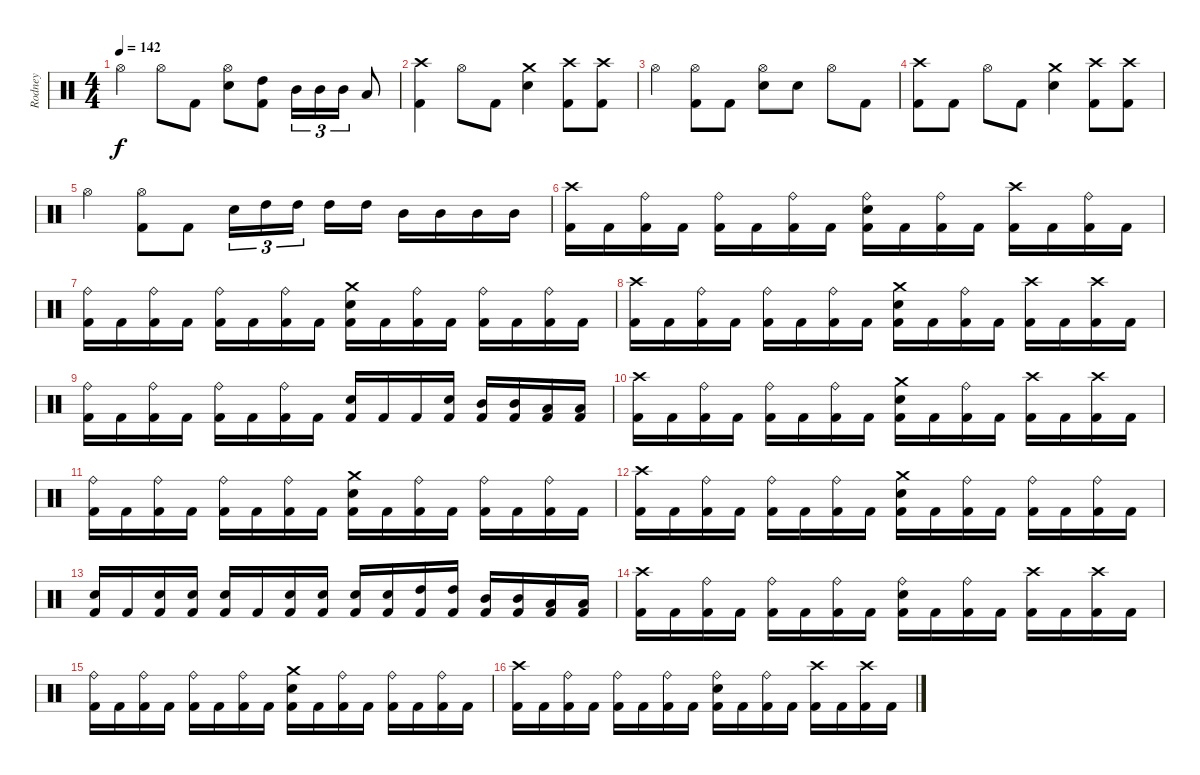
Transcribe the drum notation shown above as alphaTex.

\track ("Rodney" "Rodney") {instrument percussion}
\staff {score}
\articulation defaults
\ts (4 4)
\tempo 142
\clef neutral
\ks c "Hi-Hat (open)".4{dy f} "Hi-Hat (open)".8 "Kick (hit) 2".8
("Hi-Hat (open)" "Snare (hit) 2").8 ("High Tom (hit)" "Kick (hit) 2").8 "Mid Tom (hit)".16{tu (3 2)} "Mid Tom (hit)".16{tu (3 2)} "Mid Tom (hit)".16{tu (3 2)} "Low Tom (hit)".8 |
("Crash high (hit)" "Kick (hit) 2").4 "Hi-Hat (open)".8 "Kick (hit) 2".8 ("Crash medium (hit)" "Snare (hit) 2").4 ("Crash high (hit)" "Kick (hit) 2").8 ("Crash high (hit)" "Kick (hit) 2").8 |
"Hi-Hat (open)".4 ("Hi-Hat (open)" "Kick (hit) 2").8 "Kick (hit) 2".8 ("Hi-Hat (open)" "Snare (hit) 2").8 "Snare (hit) 2".8 "Hi-Hat (open)".8 "Kick (hit) 2".8 |
("Crash high (hit)" "Kick (hit) 2").8 "Kick (hit) 2".8 "Hi-Hat (open)".8 "Kick (hit) 2".8 ("Crash medium (hit)" "Snare (hit) 2").4 ("Crash high (hit)" "Kick (hit) 2").8 ("Crash high (hit)" "Kick (hit) 2").8 |
"Hi-Hat (open)".4 ("Hi-Hat (open)" "Kick (hit) 2").8 "Kick (hit) 2".8 "Snare (hit) 2".16{tu (3 2)} "High Tom (hit)".16{tu (3 2)} "High Tom (hit)".16{tu (3 2)} "High Tom (hit)".16 "High Tom (hit)".16 "Mid Tom (hit)".16 "Mid Tom (hit)".16 "Mid Tom (hit)".16 "Mid Tom (hit)".16 |
("Crash high (hit)" "Kick (hit) 2").16 "Kick (hit) 2".16 ("Ride (bell)" "Kick (hit) 2").16 "Kick (hit) 2".16 ("Ride (bell)" "Kick (hit) 2").16 "Kick (hit) 2".16 ("Ride (bell)" "Kick (hit) 2").16 "Kick (hit) 2".16 ("Ride (bell)" "Snare (hit) 2" "Kick (hit) 2").16 "Kick (hit) 2".16 ("Ride (bell)" "Kick (hit) 2").16 "Kick (hit) 2".16 ("Crash high (hit)" "Kick (hit) 2").16 "Kick (hit) 2".16 ("Ride (bell)" "Kick (hit) 2").16 "Kick (hit) 2".16 |
("Ride (bell)" "Kick (hit) 2").16 "Kick (hit) 2".16 ("Ride (bell)" "Kick (hit) 2").16 "Kick (hit) 2".16 ("Ride (bell)" "Kick (hit) 2").16 "Kick (hit) 2".16 ("Ride (bell)" "Kick (hit) 2").16 "Kick (hit) 2".16 ("Crash medium (hit)" "Snare (hit) 2" "Kick (hit) 2").16 "Kick (hit) 2".16 ("Ride (bell)" "Kick (hit) 2").16 "Kick (hit) 2".16 ("Ride (bell)" "Kick (hit) 2").16 "Kick (hit) 2".16 ("Ride (bell)" "Kick (hit) 2").16 "Kick (hit) 2".16 |
("Crash high (hit)" "Kick (hit) 2").16 "Kick (hit) 2".16 ("Ride (bell)" "Kick (hit) 2").16 "Kick (hit) 2".16 ("Ride (bell)" "Kick (hit) 2").16 "Kick (hit) 2".16 ("Ride (bell)" "Kick (hit) 2").16 "Kick (hit) 2".16 ("Crash medium (hit)" "Snare (hit) 2" "Kick (hit) 2").16 "Kick (hit) 2".16 ("Ride (bell)" "Kick (hit) 2").16 "Kick (hit) 2".16 ("Crash high (hit)" "Kick (hit) 2").16 "Kick (hit) 2".16 ("Crash high (hit)" "Kick (hit) 2").16 "Kick (hit) 2".16 |
("Ride (bell)" "Kick (hit) 2").16 "Kick (hit) 2".16 ("Ride (bell)" "Kick (hit) 2").16 "Kick (hit) 2".16 ("Ride (bell)" "Kick (hit) 2").16 "Kick (hit) 2".16 ("Ride (bell)" "Kick (hit) 2").16 "Kick (hit) 2".16 ("Snare (hit) 2" "Kick (hit) 2").16 "Kick (hit) 2".16 "Kick (hit) 2".16 ("Snare (hit) 2" "Kick (hit) 2").16 ("Mid Tom (hit)" "Kick (hit) 2").16 ("Mid Tom (hit)" "Kick (hit) 2").16 ("Low Tom (hit)" "Kick (hit) 2").16 ("Low Tom (hit)" "Kick (hit) 2").16 |
("Crash high (hit)" "Kick (hit) 2").16 "Kick (hit) 2".16 ("Ride (bell)" "Kick (hit) 2").16 "Kick (hit) 2".16 ("Ride (bell)" "Kick (hit) 2").16 "Kick (hit) 2".16 ("Ride (bell)" "Kick (hit) 2").16 "Kick (hit) 2".16 ("Crash medium (hit)" "Snare (hit) 2" "Kick (hit) 2").16 "Kick (hit) 2".16 ("Ride (bell)" "Kick (hit) 2").16 "Kick (hit) 2".16 ("Crash high (hit)" "Kick (hit) 2").16 "Kick (hit) 2".16 ("Crash high (hit)" "Kick (hit) 2").16 "Kick (hit) 2".16 |
("Ride (bell)" "Kick (hit) 2").16 "Kick (hit) 2".16 ("Ride (bell)" "Kick (hit) 2").16 "Kick (hit) 2".16 ("Ride (bell)" "Kick (hit) 2").16 "Kick (hit) 2".16 ("Ride (bell)" "Kick (hit) 2").16 "Kick (hit) 2".16 ("Crash medium (hit)" "Snare (hit) 2" "Kick (hit) 2").16 "Kick (hit) 2".16 ("Ride (bell)" "Kick (hit) 2").16 "Kick (hit) 2".16 ("Ride (bell)" "Kick (hit) 2").16 "Kick (hit) 2".16 ("Ride (bell)" "Kick (hit) 2").16 "Kick (hit) 2".16 |
("Crash high (hit)" "Kick (hit) 2").16 "Kick (hit) 2".16 ("Ride (bell)" "Kick (hit) 2").16 "Kick (hit) 2".16 ("Ride (bell)" "Kick (hit) 2").16 "Kick (hit) 2".16 ("Ride (bell)" "Kick (hit) 2").16 "Kick (hit) 2".16 ("Crash medium (hit)" "Snare (hit) 2" "Kick (hit) 2").16 "Kick (hit) 2".16 ("Ride (bell)" "Kick (hit) 2").16 "Kick (hit) 2".16 ("Ride (bell)" "Kick (hit) 2").16 "Kick (hit) 2".16 ("Ride (bell)" "Kick (hit) 2").16 "Kick (hit) 2".16 |
("Snare (hit) 2" "Kick (hit) 2").16 "Kick (hit) 2".16 ("Snare (hit) 2" "Kick (hit) 2").16 ("Snare (hit) 2" "Kick (hit) 2").16 ("Snare (hit) 2" "Kick (hit) 2").16 "Kick (hit) 2".16 ("Snare (hit) 2" "Kick (hit) 2").16 ("Snare (hit) 2" "Kick (hit) 2").16 ("Snare (hit) 2" "Kick (hit) 2").16 ("Snare (hit) 2" "Kick (hit) 2").16 ("High Tom (hit)" "Kick (hit) 2").16 ("High Tom (hit)" "Kick (hit) 2").16 ("Mid Tom (hit)" "Kick (hit) 2").16 ("Mid Tom (hit)" "Kick (hit) 2").16 ("Low Tom (hit)" "Kick (hit) 2").16 ("Low Tom (hit)" "Kick (hit) 2").16 |
("Crash high (hit)" "Kick (hit) 2").16 "Kick (hit) 2".16 ("Ride (bell)" "Kick (hit) 2").16 "Kick (hit) 2".16 ("Ride (bell)" "Kick (hit) 2").16 "Kick (hit) 2".16 ("Ride (bell)" "Kick (hit) 2").16 "Kick (hit) 2".16 ("Ride (bell)" "Snare (hit) 2" "Kick (hit) 2").16 "Kick (hit) 2".16 ("Ride (bell)" "Kick (hit) 2").16 "Kick (hit) 2".16 ("Crash high (hit)" "Kick (hit) 2").16 "Kick (hit) 2".16 ("Crash high (hit)" "Kick (hit) 2").16 "Kick (hit) 2".16 |
("Ride (bell)" "Kick (hit) 2").16 "Kick (hit) 2".16 ("Ride (bell)" "Kick (hit) 2").16 "Kick (hit) 2".16 ("Ride (bell)" "Kick (hit) 2").16 "Kick (hit) 2".16 ("Ride (bell)" "Kick (hit) 2").16 "Kick (hit) 2".16 ("Crash medium (hit)" "Snare (hit) 2" "Kick (hit) 2").16 "Kick (hit) 2".16 ("Ride (bell)" "Kick (hit) 2").16 "Kick (hit) 2".16 ("Ride (bell)" "Kick (hit) 2").16 "Kick (hit) 2".16 ("Ride (bell)" "Kick (hit) 2").16 "Kick (hit) 2".16 |
("Crash high (hit)" "Kick (hit) 2").16 "Kick (hit) 2".16 ("Ride (bell)" "Kick (hit) 2").16 "Kick (hit) 2".16 ("Ride (bell)" "Kick (hit) 2").16 "Kick (hit) 2".16 ("Ride (bell)" "Kick (hit) 2").16 "Kick (hit) 2".16 ("Ride (bell)" "Snare (hit) 2" "Kick (hit) 2").16 "Kick (hit) 2".16 ("Ride (bell)" "Kick (hit) 2").16 "Kick (hit) 2".16 ("Crash high (hit)" "Kick (hit) 2").16 "Kick (hit) 2".16 ("Crash high (hit)" "Kick (hit) 2").16 "Kick (hit) 2".16
